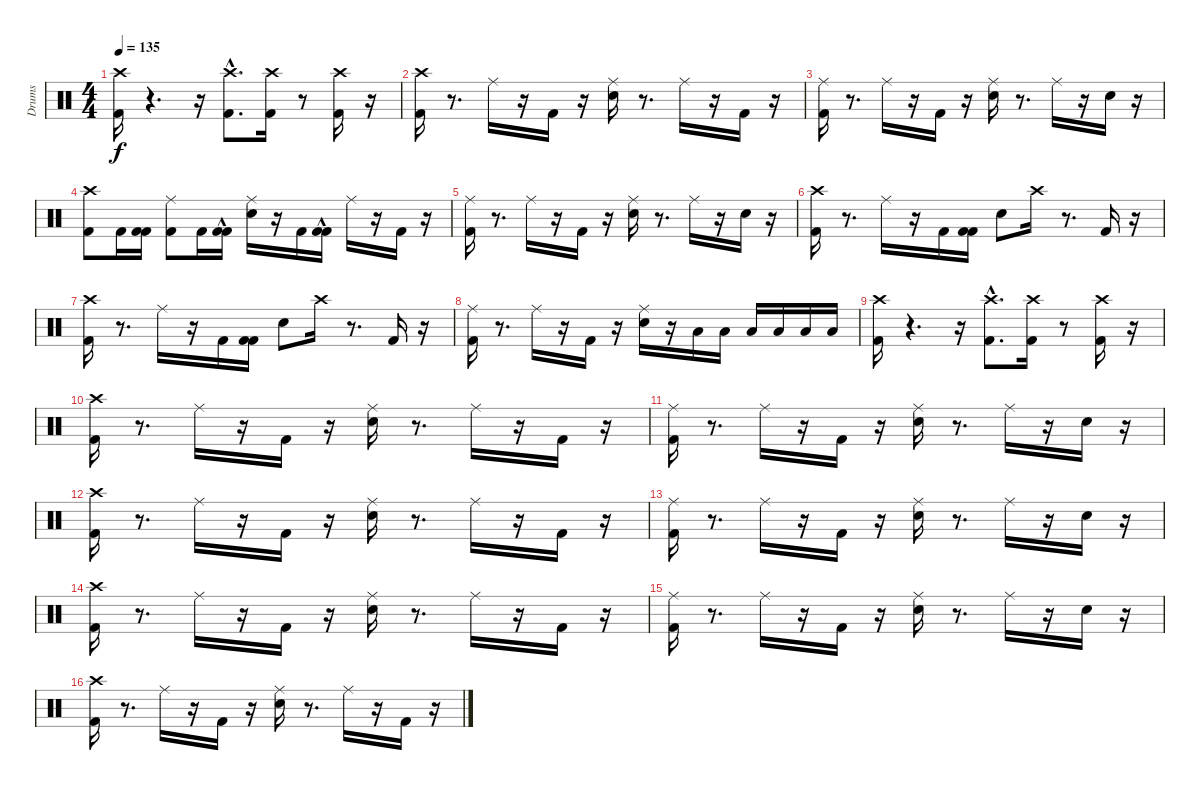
\track ("Drums" "Drums") {instrument percussion}
\staff {score}
\articulation defaults
\ts (4 4)
\tempo 135
\clef neutral
\ks c
("Kick (hit) 2" "Crash high (hit)").16{dy f} r.4{d} r.16 ("Kick (hit) 2"{hac} "Crash high (hit)"{hac}).8{d} ("Kick (hit) 2" "Crash high (hit)").16 r.8 ("Kick (hit) 2" "Crash high (hit)").16 r.16 |
("Kick (hit) 2" "Crash high (hit)").16 r.8{d} "Ride (middle)".16 r.16 "Kick (hit) 2".16 r.16 ("Snare (hit) 2" "Ride (middle)").16 r.8{d} "Ride (middle)".16 r.16 "Kick (hit) 2".16 r.16 |
("Kick (hit) 2" "Ride (middle)").16 r.8{d} "Ride (middle)".16 r.16 "Kick (hit) 2".16 r.16 ("Snare (hit) 2" "Ride (middle)").16 r.8{d} "Ride (middle)".16 r.16 "Snare (hit) 2".16 r.16 |
("Kick (hit) 2" "Crash high (hit)").8 "Kick (hit) 2".16 ("Kick (hit) 2" "Kick (hit) 2").16 ("Kick (hit) 2" "Ride (middle)").8 "Kick (hit) 2".16 ("Kick (hit) 2"{hac} "Kick (hit) 2"{hac}).16 ("Snare (hit) 2" "Ride (middle)").16 r.16 "Kick (hit) 2".16 ("Kick (hit) 2"{hac} "Kick (hit) 2"{hac}).16 "Ride (middle)".16 r.16 "Kick (hit) 2".16 r.16 |
("Kick (hit) 2" "Ride (middle)").16 r.8{d} "Ride (middle)".16 r.16 "Kick (hit) 2".16 r.16 ("Snare (hit) 2" "Ride (middle)").16 r.8{d} "Ride (middle)".16 r.16 "Snare (hit) 2".16 r.16 |
("Kick (hit) 2" "Crash high (hit)").16 r.8{d} "Ride (middle)".16 r.16 "Kick (hit) 2".16 ("Kick (hit) 2" "Kick (hit) 2").16 "Snare (hit) 2".8 "Crash high (hit)".16 r.8{d} "Kick (hit) 2".16 r.16 |
("Kick (hit) 2" "Crash high (hit)").16 r.8{d} "Ride (middle)".16 r.16 "Kick (hit) 2".16 ("Kick (hit) 2" "Kick (hit) 2").16 "Snare (hit) 2".8 "Crash high (hit)".16 r.8{d} "Kick (hit) 2".16 r.16 |
("Kick (hit) 2" "Ride (middle)").16 r.8{d} "Ride (middle)".16 r.16 "Kick (hit) 2".16 r.16 ("Snare (hit) 2" "Ride (middle)").16 r.16 "Low Tom (hit)".16 "Low Tom (hit)".16 "Low Tom (hit)".16 "Low Floor Tom (hit)".16 "Low Floor Tom (hit)".16 "Low Floor Tom (hit)".16 |
("Kick (hit) 2" "Crash high (hit)").16 r.4{d} r.16 ("Kick (hit) 2"{hac} "Crash high (hit)"{hac}).8{d} ("Kick (hit) 2" "Crash high (hit)").16 r.8 ("Kick (hit) 2" "Crash high (hit)").16 r.16 |
("Kick (hit) 2" "Crash high (hit)").16 r.8{d} "Ride (middle)".16 r.16 "Kick (hit) 2".16 r.16 ("Snare (hit) 2" "Ride (middle)").16 r.8{d} "Ride (middle)".16 r.16 "Kick (hit) 2".16 r.16 |
("Kick (hit) 2" "Ride (middle)").16 r.8{d} "Ride (middle)".16 r.16 "Kick (hit) 2".16 r.16 ("Snare (hit) 2" "Ride (middle)").16 r.8{d} "Ride (middle)".16 r.16 "Snare (hit) 2".16 r.16 |
("Kick (hit) 2" "Crash high (hit)").16 r.8{d} "Ride (middle)".16 r.16 "Kick (hit) 2".16 r.16 ("Snare (hit) 2" "Ride (middle)").16 r.8{d} "Ride (middle)".16 r.16 "Kick (hit) 2".16 r.16 |
("Kick (hit) 2" "Ride (middle)").16 r.8{d} "Ride (middle)".16 r.16 "Kick (hit) 2".16 r.16 ("Snare (hit) 2" "Ride (middle)").16 r.8{d} "Ride (middle)".16 r.16 "Snare (hit) 2".16 r.16 |
("Kick (hit) 2" "Crash high (hit)").16 r.8{d} "Ride (middle)".16 r.16 "Kick (hit) 2".16 r.16 ("Snare (hit) 2" "Ride (middle)").16 r.8{d} "Ride (middle)".16 r.16 "Kick (hit) 2".16 r.16 |
("Kick (hit) 2" "Ride (middle)").16 r.8{d} "Ride (middle)".16 r.16 "Kick (hit) 2".16 r.16 ("Snare (hit) 2" "Ride (middle)").16 r.8{d} "Ride (middle)".16 r.16 "Snare (hit) 2".16 r.16 |
("Kick (hit) 2" "Crash high (hit)").16 r.8{d} "Ride (middle)".16 r.16 "Kick (hit) 2".16 r.16 ("Snare (hit) 2" "Ride (middle)").16 r.8{d} "Ride (middle)".16 r.16 "Kick (hit) 2".16 r.16
